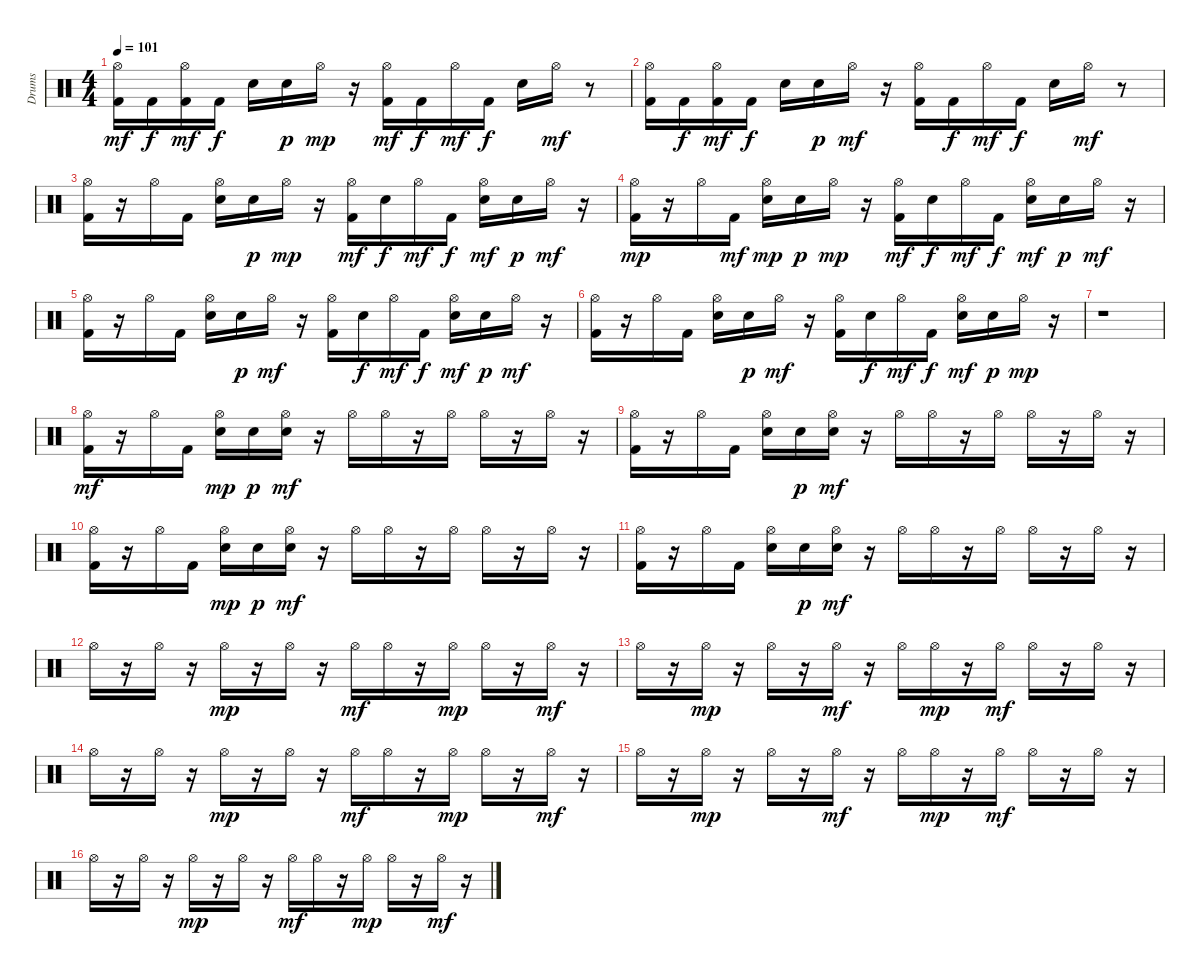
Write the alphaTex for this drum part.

\track ("Drums" "Drums") {instrument percussion}
\staff {score}
\articulation defaults
\ts (4 4)
\tempo 101
\clef neutral
\ks c
("Kick (hit) 2" "Hi-Hat (open)").16{dy mf} "Kick (hit) 2".16{dy f} ("Kick (hit) 2" "Hi-Hat (open)").16{dy mf} "Kick (hit) 2".16{dy f} "Snare (hit) 2".16 "Snare (hit) 2".16{dy p} "Hi-Hat (open)".16{dy mp} r.16 ("Hi-Hat (open)" "Kick (hit) 2").16{dy mf} "Kick (hit) 2".16{dy f} "Hi-Hat (open)".16{dy mf} "Kick (hit) 2".16{dy f} "Snare (hit) 2".16 "Hi-Hat (open)".16{dy mf} r.8 |
("Kick (hit) 2" "Hi-Hat (open)").16 "Kick (hit) 2".16{dy f} ("Kick (hit) 2" "Hi-Hat (open)").16{dy mf} "Kick (hit) 2".16{dy f} "Snare (hit) 2".16 "Snare (hit) 2".16{dy p} "Hi-Hat (open)".16{dy mf} r.16 ("Hi-Hat (open)" "Kick (hit) 2").16 "Kick (hit) 2".16{dy f} "Hi-Hat (open)".16{dy mf} "Kick (hit) 2".16{dy f} "Snare (hit) 2".16 "Hi-Hat (open)".16{dy mf} r.8 |
("Kick (hit) 2" "Hi-Hat (open)").16 r.16 "Hi-Hat (open)".16 "Kick (hit) 2".16 ("Snare (hit) 2" "Hi-Hat (open)").16 "Snare (hit) 2".16{dy p} "Hi-Hat (open)".16{dy mp} r.16 ("Kick (hit) 2" "Hi-Hat (open)").16{dy mf} "Snare (hit) 2".16{dy f} "Hi-Hat (open)".16{dy mf} "Kick (hit) 2".16{dy f} ("Hi-Hat (open)" "Snare (hit) 2").16{dy mf} "Snare (hit) 2".16{dy p} "Hi-Hat (open)".16{dy mf} r.16 |
("Kick (hit) 2" "Hi-Hat (open)").16{dy mp} r.16 "Hi-Hat (open)".16 "Kick (hit) 2".16{dy mf} ("Hi-Hat (open)" "Snare (hit) 2").16{dy mp} "Snare (hit) 2".16{dy p} "Hi-Hat (open)".16{dy mp} r.16 ("Hi-Hat (open)" "Kick (hit) 2").16{dy mf} "Snare (hit) 2".16{dy f} "Hi-Hat (open)".16{dy mf} "Kick (hit) 2".16{dy f} ("Snare (hit) 2" "Hi-Hat (open)").16{dy mf} "Snare (hit) 2".16{dy p} "Hi-Hat (open)".16{dy mf} r.16 |
("Kick (hit) 2" "Hi-Hat (open)").16 r.16 "Hi-Hat (open)".16 "Kick (hit) 2".16 ("Snare (hit) 2" "Hi-Hat (open)").16 "Snare (hit) 2".16{dy p} "Hi-Hat (open)".16{dy mf} r.16 ("Kick (hit) 2" "Hi-Hat (open)").16 "Snare (hit) 2".16{dy f} "Hi-Hat (open)".16{dy mf} "Kick (hit) 2".16{dy f} ("Snare (hit) 2" "Hi-Hat (open)").16{dy mf} "Snare (hit) 2".16{dy p} "Hi-Hat (open)".16{dy mf} r.16 |
("Hi-Hat (open)" "Kick (hit) 2").16 r.16 "Hi-Hat (open)".16 "Kick (hit) 2".16 ("Hi-Hat (open)" "Snare (hit) 2").16 "Snare (hit) 2".16{dy p} "Hi-Hat (open)".16{dy mf} r.16 ("Kick (hit) 2" "Hi-Hat (open)").16 "Snare (hit) 2".16{dy f} "Hi-Hat (open)".16{dy mf} "Kick (hit) 2".16{dy f} ("Snare (hit) 2" "Hi-Hat (open)").16{dy mf} "Snare (hit) 2".16{dy p} "Hi-Hat (open)".16{dy mp} r.16 |
r.1 |
("Kick (hit) 2" "Hi-Hat (open)").16{dy mf} r.16 "Hi-Hat (open)".16 "Kick (hit) 2".16 ("Snare (hit) 2" "Hi-Hat (open)").16{dy mp} "Snare (hit) 2".16{dy p} ("Hi-Hat (open)" "Snare (hit) 2").16{dy mf} r.16 "Hi-Hat (open)".16 "Hi-Hat (open)".16 r.16 "Hi-Hat (open)".16 "Hi-Hat (open)".16 r.16 "Hi-Hat (open)".16 r.16 |
("Kick (hit) 2" "Hi-Hat (open)").16 r.16 "Hi-Hat (open)".16 "Kick (hit) 2".16 ("Snare (hit) 2" "Hi-Hat (open)").16 "Snare (hit) 2".16{dy p} ("Snare (hit) 2" "Hi-Hat (open)").16{dy mf} r.16 "Hi-Hat (open)".16 "Hi-Hat (open)".16 r.16 "Hi-Hat (open)".16 "Hi-Hat (open)".16 r.16 "Hi-Hat (open)".16 r.16 |
("Kick (hit) 2" "Hi-Hat (open)").16 r.16 "Hi-Hat (open)".16 "Kick (hit) 2".16 ("Snare (hit) 2" "Hi-Hat (open)").16{dy mp} "Snare (hit) 2".16{dy p} ("Hi-Hat (open)" "Snare (hit) 2").16{dy mf} r.16 "Hi-Hat (open)".16 "Hi-Hat (open)".16 r.16 "Hi-Hat (open)".16 "Hi-Hat (open)".16 r.16 "Hi-Hat (open)".16 r.16 |
("Kick (hit) 2" "Hi-Hat (open)").16 r.16 "Hi-Hat (open)".16 "Kick (hit) 2".16 ("Snare (hit) 2" "Hi-Hat (open)").16 "Snare (hit) 2".16{dy p} ("Snare (hit) 2" "Hi-Hat (open)").16{dy mf} r.16 "Hi-Hat (open)".16 "Hi-Hat (open)".16 r.16 "Hi-Hat (open)".16 "Hi-Hat (open)".16 r.16 "Hi-Hat (open)".16 r.16 |
"Hi-Hat (open)".16 r.16 "Hi-Hat (open)".16 r.16 "Hi-Hat (open)".16{dy mp} r.16 "Hi-Hat (open)".16 r.16 "Hi-Hat (open)".16{dy mf} "Hi-Hat (open)".16 r.16 "Hi-Hat (open)".16{dy mp} "Hi-Hat (open)".16 r.16 "Hi-Hat (open)".16{dy mf} r.16 |
"Hi-Hat (open)".16 r.16 "Hi-Hat (open)".16{dy mp} r.16 "Hi-Hat (open)".16 r.16 "Hi-Hat (open)".16{dy mf} r.16 "Hi-Hat (open)".16 "Hi-Hat (open)".16{dy mp} r.16 "Hi-Hat (open)".16{dy mf} "Hi-Hat (open)".16 r.16 "Hi-Hat (open)".16 r.16 |
"Hi-Hat (open)".16 r.16 "Hi-Hat (open)".16 r.16 "Hi-Hat (open)".16{dy mp} r.16 "Hi-Hat (open)".16 r.16 "Hi-Hat (open)".16{dy mf} "Hi-Hat (open)".16 r.16 "Hi-Hat (open)".16{dy mp} "Hi-Hat (open)".16 r.16 "Hi-Hat (open)".16{dy mf} r.16 |
"Hi-Hat (open)".16 r.16 "Hi-Hat (open)".16{dy mp} r.16 "Hi-Hat (open)".16 r.16 "Hi-Hat (open)".16{dy mf} r.16 "Hi-Hat (open)".16 "Hi-Hat (open)".16{dy mp} r.16 "Hi-Hat (open)".16{dy mf} "Hi-Hat (open)".16 r.16 "Hi-Hat (open)".16 r.16 |
"Hi-Hat (open)".16 r.16 "Hi-Hat (open)".16 r.16 "Hi-Hat (open)".16{dy mp} r.16 "Hi-Hat (open)".16 r.16 "Hi-Hat (open)".16{dy mf} "Hi-Hat (open)".16 r.16 "Hi-Hat (open)".16{dy mp} "Hi-Hat (open)".16 r.16 "Hi-Hat (open)".16{dy mf} r.16
